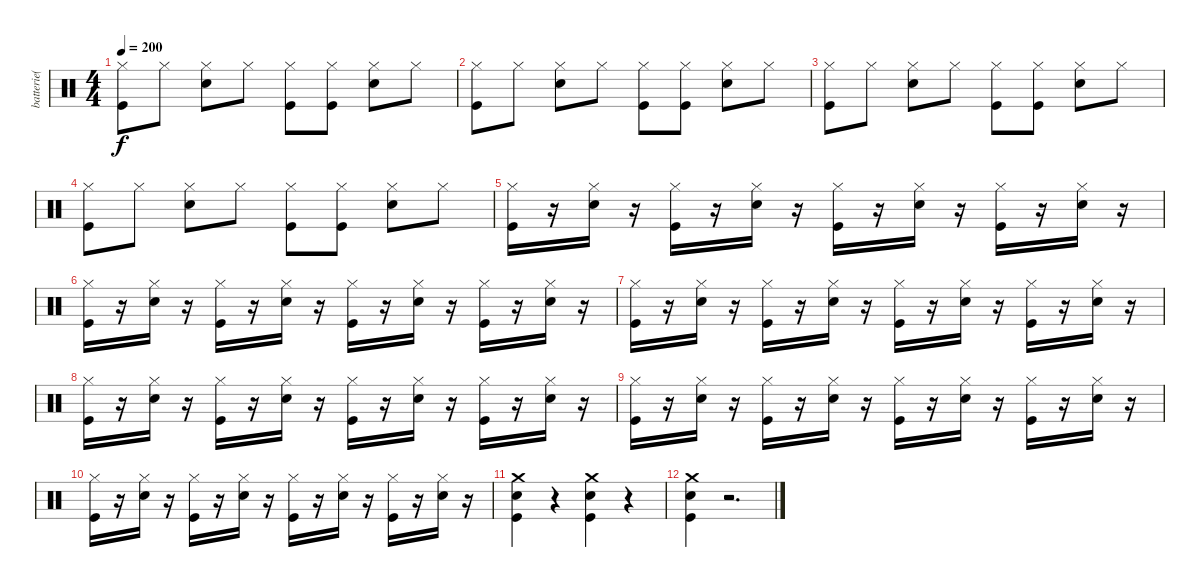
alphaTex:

\track ("batterie( Guillaume ) " "batterie( ") {instrument percussion}
\staff {score}
\articulation defaults
\ts (4 4)
\tempo 200
\clef neutral
\ks c
("Hi-Hat (closed)" "Kick (hit)").8{dy f} "Hi-Hat (closed)".8 ("Hi-Hat (closed)" "Snare (hit) 2").8 "Hi-Hat (closed)".8 ("Hi-Hat (closed)" "Kick (hit)").8 ("Hi-Hat (closed)" "Kick (hit)").8 ("Hi-Hat (closed)" "Snare (hit) 2").8 "Hi-Hat (closed)".8 |
("Hi-Hat (closed)" "Kick (hit)").8 "Hi-Hat (closed)".8 ("Hi-Hat (closed)" "Snare (hit) 2").8 "Hi-Hat (closed)".8 ("Hi-Hat (closed)" "Kick (hit)").8 ("Hi-Hat (closed)" "Kick (hit)").8 ("Hi-Hat (closed)" "Snare (hit) 2").8 "Hi-Hat (closed)".8 |
("Hi-Hat (closed)" "Kick (hit)").8 "Hi-Hat (closed)".8 ("Hi-Hat (closed)" "Snare (hit) 2").8 "Hi-Hat (closed)".8 ("Hi-Hat (closed)" "Kick (hit)").8 ("Hi-Hat (closed)" "Kick (hit)").8 ("Hi-Hat (closed)" "Snare (hit) 2").8 "Hi-Hat (closed)".8 |
("Hi-Hat (closed)" "Kick (hit)").8 "Hi-Hat (closed)".8 ("Hi-Hat (closed)" "Snare (hit) 2").8 "Hi-Hat (closed)".8 ("Hi-Hat (closed)" "Kick (hit)").8 ("Hi-Hat (closed)" "Kick (hit)").8 ("Hi-Hat (closed)" "Snare (hit) 2").8 "Hi-Hat (closed)".8 |
("Hi-Hat (closed)" "Kick (hit)").16 r.16 ("Hi-Hat (closed)" "Snare (hit) 2").16 r.16 ("Hi-Hat (closed)" "Kick (hit)").16 r.16 ("Hi-Hat (closed)" "Snare (hit) 2").16 r.16 ("Hi-Hat (closed)" "Kick (hit)").16 r.16 ("Hi-Hat (closed)" "Snare (hit) 2").16 r.16 ("Hi-Hat (closed)" "Kick (hit)").16 r.16 ("Hi-Hat (closed)" "Snare (hit) 2").16 r.16 |
("Hi-Hat (closed)" "Kick (hit)").16 r.16 ("Hi-Hat (closed)" "Snare (hit) 2").16 r.16 ("Hi-Hat (closed)" "Kick (hit)").16 r.16 ("Hi-Hat (closed)" "Snare (hit) 2").16 r.16 ("Hi-Hat (closed)" "Kick (hit)").16 r.16 ("Hi-Hat (closed)" "Snare (hit) 2").16 r.16 ("Hi-Hat (closed)" "Kick (hit)").16 r.16 ("Hi-Hat (closed)" "Snare (hit) 2").16 r.16 |
("Hi-Hat (closed)" "Kick (hit)").16 r.16 ("Hi-Hat (closed)" "Snare (hit) 2").16 r.16 ("Hi-Hat (closed)" "Kick (hit)").16 r.16 ("Hi-Hat (closed)" "Snare (hit) 2").16 r.16 ("Hi-Hat (closed)" "Kick (hit)").16 r.16 ("Hi-Hat (closed)" "Snare (hit) 2").16 r.16 ("Hi-Hat (closed)" "Kick (hit)").16 r.16 ("Hi-Hat (closed)" "Snare (hit) 2").16 r.16 |
("Hi-Hat (closed)" "Kick (hit)").16 r.16 ("Hi-Hat (closed)" "Snare (hit) 2").16 r.16 ("Hi-Hat (closed)" "Kick (hit)").16 r.16 ("Hi-Hat (closed)" "Snare (hit) 2").16 r.16 ("Hi-Hat (closed)" "Kick (hit)").16 r.16 ("Hi-Hat (closed)" "Snare (hit) 2").16 r.16 ("Hi-Hat (closed)" "Kick (hit)").16 r.16 ("Hi-Hat (closed)" "Snare (hit) 2").16 r.16 |
("Hi-Hat (closed)" "Kick (hit)").16 r.16 ("Hi-Hat (closed)" "Snare (hit) 2").16 r.16 ("Hi-Hat (closed)" "Kick (hit)").16 r.16 ("Hi-Hat (closed)" "Snare (hit) 2").16 r.16 ("Hi-Hat (closed)" "Kick (hit)").16 r.16 ("Hi-Hat (closed)" "Snare (hit) 2").16 r.16 ("Hi-Hat (closed)" "Kick (hit)").16 r.16 ("Hi-Hat (closed)" "Snare (hit) 2").16 r.16 |
("Hi-Hat (closed)" "Kick (hit)").16 r.16 ("Hi-Hat (closed)" "Snare (hit) 2").16 r.16 ("Hi-Hat (closed)" "Kick (hit)").16 r.16 ("Hi-Hat (closed)" "Snare (hit) 2").16 r.16 ("Hi-Hat (closed)" "Kick (hit)").16 r.16 ("Hi-Hat (closed)" "Snare (hit) 2").16 r.16 ("Hi-Hat (closed)" "Kick (hit)").16 r.16 ("Hi-Hat (closed)" "Snare (hit) 2").16 r.16 |
("Crash medium (hit)" "Snare (hit) 2" "Kick (hit)").4 r.4 ("Crash medium (hit)" "Snare (hit) 2" "Kick (hit)").4 r.4 |
("Crash medium (hit)" "Snare (hit) 2" "Kick (hit)").4 r.2{d}
